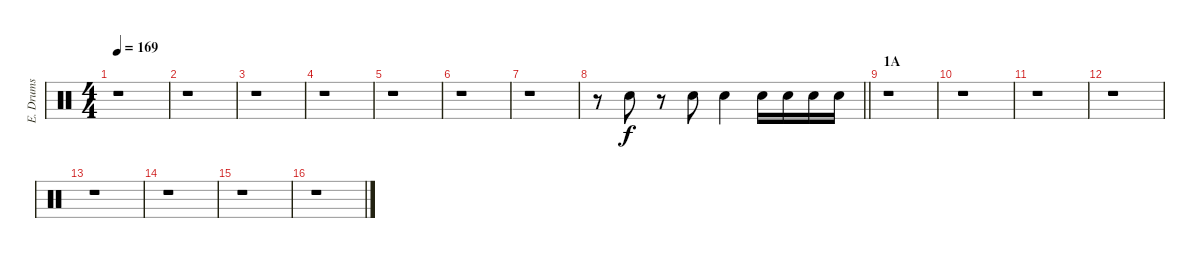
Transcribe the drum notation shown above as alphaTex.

\track ("E. Drums" "E. Drums") {instrument percussion}
\staff {score}
\articulation defaults
\ts (4 4)
\tempo 169
\clef neutral
\ks c
r.1{dy mp} |
r.1 |
r.1 |
r.1 |
r.1 |
r.1 |
r.1 |
\barLineRight lightlight
r.8 "Electric Snare (hit)".8{dy f} r.8 "Electric Snare (hit)".8 "Electric Snare (hit)".4 "Electric Snare (hit)".16 "Electric Snare (hit)".16 "Electric Snare (hit)".16 "Electric Snare (hit)".16 |
\section ("" "1A")
r.1 |
r.1 |
r.1 |
r.1 |
r.1 |
r.1 |
r.1 |
r.1
